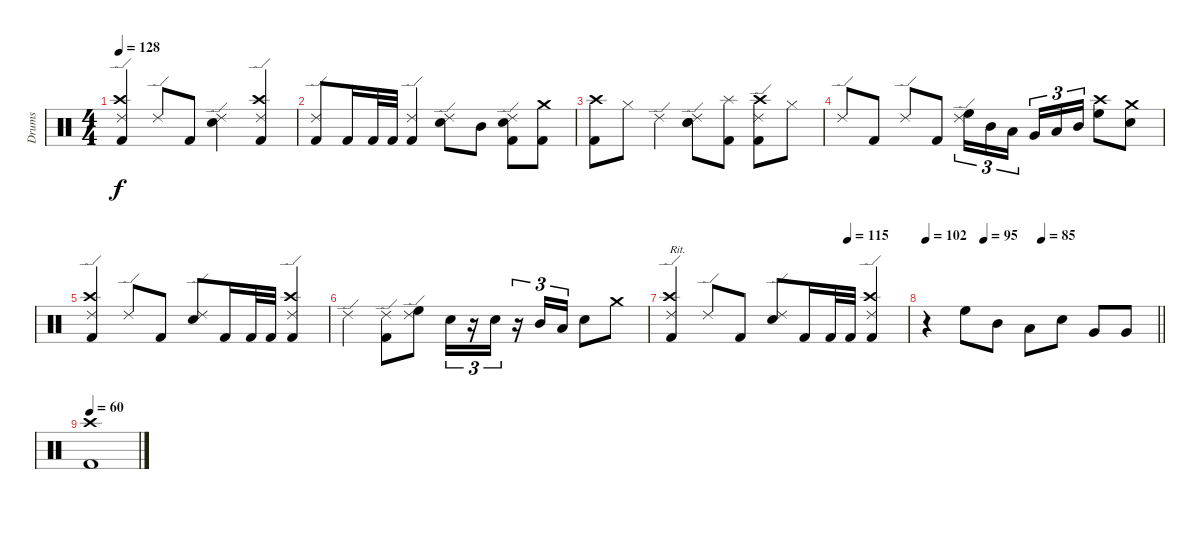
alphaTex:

\track ("Drums" "Drums") {instrument percussion}
\staff {score}
\articulation defaults
\ts (4 4)
\tempo 128
\clef neutral
\ks c
("Ride (edge) 2" "Crash high (hit)" "Kick (hit) 2").4{dy f} "Ride (edge) 2".8 "Kick (hit) 2".8 ("Ride (edge) 2" "Snare (hit) 2").4 ("Ride (edge) 2" "Crash high (hit)" "Kick (hit) 2").4 |
("Ride (edge) 2" "Kick (hit) 2").8 "Kick (hit) 2".16 "Kick (hit) 2".32 "Kick (hit) 2".32 ("Ride (edge) 2" "Kick (hit) 2").4 ("Ride (edge) 2" "Snare (hit) 2").8 "Mid Tom (hit)".8 ("Ride (edge) 2" "Snare (hit) 2" "Kick (hit) 2").8 ("Crash medium (hit)" "Kick (hit) 2").8 |
("Crash high (hit)" "Kick (hit) 2").8 "Hi-Hat (closed)".8 "Ride (edge) 2".4 ("Ride (edge) 2" "Snare (hit) 2" "Snare (hit)").8 ("Splash (hit)" "Kick (hit) 2").8 ("Ride (edge) 2" "Crash high (hit)" "Kick (hit) 2").8 "Hi-Hat (closed)".8 |
"Ride (edge) 2".8 "Kick (hit) 2".8 "Ride (edge) 2".8 "Kick (hit) 2".8 ("Ride (edge) 2" "High Floor Tom (hit)").16{tu (3 2)} "Mid Tom (hit)".16{tu (3 2)} "Low Tom (hit)".16{tu (3 2) beam splitsecondary} "Very Low Tom (hit)".16{tu (3 2)} "Low Tom (hit)".16{tu (3 2)} "Mid Tom (hit)".16{tu (3 2)} ("Crash high (hit)" "High Floor Tom (hit)").8 ("Crash medium (hit)" "Snare (hit) 2").8 |
("Ride (edge) 2" "Crash high (hit)" "Kick (hit) 2").4 "Ride (edge) 2".8 "Kick (hit) 2".8 ("Ride (edge) 2" "Snare (hit) 2").8 "Kick (hit) 2".16 "Kick (hit) 2".32 "Kick (hit) 2".32 ("Ride (edge) 2" "Crash high (hit)" "Kick (hit) 2").4 |
"Ride (edge) 2".4 ("Ride (edge) 2" "Kick (hit) 2").8 ("Ride (edge) 2" "High Floor Tom (hit)").8 "Snare (hit) 2".16{tu (3 2)} r.16{tu (3 2)} "Snare (hit) 2".16{tu (3 2)} r.16{tu (3 2)} "Mid Tom (hit)".16{tu (3 2)} "Low Tom (hit)".16{tu (3 2)} "Snare (hit) 2".8 "Crash medium (hit)".8 |
\tempo (115 0.75)
("Ride (edge) 2" "Crash high (hit)" "Kick (hit) 2").4{txt "Rit."} "Ride (edge) 2".8 "Kick (hit) 2".8 ("Ride (edge) 2" "Snare (hit) 2").8 "Kick (hit) 2".16 "Kick (hit) 2".32 "Kick (hit) 2".32 ("Ride (edge) 2" "Crash high (hit)" "Kick (hit) 2").4 |
\tempo 102
\tempo (95 0.25)
\tempo (85 0.5)
\barLineRight lightlight
r.4 "High Floor Tom (hit)".8 "Mid Tom (hit)".8 "Low Tom (hit)".8 "Snare (hit) 2".8 "Very Low Tom (hit)".8 "Very Low Tom (hit)".8 |
\tempo 60
("Crash high (hit)" "Kick (hit) 2").1
